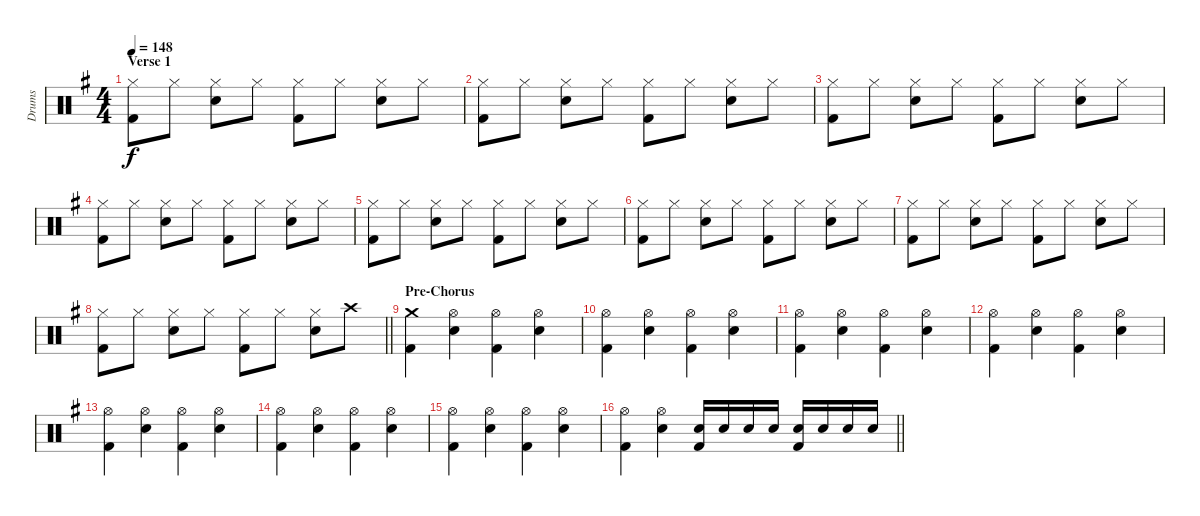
\track ("Drums" "Drums") {instrument percussion}
\staff {score}
\articulation defaults
\ts (4 4)
\section ("" "Verse 1")
\tempo 148
\clef neutral
\ks g
("Kick (hit) 2" "Hi-Hat (closed)").8{dy f} "Hi-Hat (closed)".8 ("Snare (hit) 2" "Hi-Hat (closed)").8 "Hi-Hat (closed)".8 ("Kick (hit) 2" "Hi-Hat (closed)").8 "Hi-Hat (closed)".8 ("Snare (hit) 2" "Hi-Hat (closed)").8 "Hi-Hat (closed)".8 |
("Kick (hit) 2" "Hi-Hat (closed)").8 "Hi-Hat (closed)".8 ("Snare (hit) 2" "Hi-Hat (closed)").8 "Hi-Hat (closed)".8 ("Kick (hit) 2" "Hi-Hat (closed)").8 "Hi-Hat (closed)".8 ("Snare (hit) 2" "Hi-Hat (closed)").8 "Hi-Hat (closed)".8 |
("Kick (hit) 2" "Hi-Hat (closed)").8 "Hi-Hat (closed)".8 ("Snare (hit) 2" "Hi-Hat (closed)").8 "Hi-Hat (closed)".8 ("Kick (hit) 2" "Hi-Hat (closed)").8 "Hi-Hat (closed)".8 ("Snare (hit) 2" "Hi-Hat (closed)").8 "Hi-Hat (closed)".8 |
("Kick (hit) 2" "Hi-Hat (closed)").8 "Hi-Hat (closed)".8 ("Snare (hit) 2" "Hi-Hat (closed)").8 "Hi-Hat (closed)".8 ("Kick (hit) 2" "Hi-Hat (closed)").8 "Hi-Hat (closed)".8 ("Snare (hit) 2" "Hi-Hat (closed)").8 "Hi-Hat (closed)".8 |
("Kick (hit) 2" "Hi-Hat (closed)").8 "Hi-Hat (closed)".8 ("Snare (hit) 2" "Hi-Hat (closed)").8 "Hi-Hat (closed)".8 ("Kick (hit) 2" "Hi-Hat (closed)").8 "Hi-Hat (closed)".8 ("Snare (hit) 2" "Hi-Hat (closed)").8 "Hi-Hat (closed)".8 |
("Kick (hit) 2" "Hi-Hat (closed)").8 "Hi-Hat (closed)".8 ("Snare (hit) 2" "Hi-Hat (closed)").8 "Hi-Hat (closed)".8 ("Kick (hit) 2" "Hi-Hat (closed)").8 "Hi-Hat (closed)".8 ("Snare (hit) 2" "Hi-Hat (closed)").8 "Hi-Hat (closed)".8 |
("Kick (hit) 2" "Hi-Hat (closed)").8 "Hi-Hat (closed)".8 ("Snare (hit) 2" "Hi-Hat (closed)").8 "Hi-Hat (closed)".8 ("Kick (hit) 2" "Hi-Hat (closed)").8 "Hi-Hat (closed)".8 ("Snare (hit) 2" "Hi-Hat (closed)").8 "Hi-Hat (closed)".8 |
\barLineRight lightlight
("Kick (hit) 2" "Hi-Hat (closed)").8 "Hi-Hat (closed)".8 ("Snare (hit) 2" "Hi-Hat (closed)").8 "Hi-Hat (closed)".8 ("Kick (hit) 2" "Hi-Hat (closed)").8 "Hi-Hat (closed)".8 ("Snare (hit) 2" "Hi-Hat (closed)").8 "Crash high (hit)".8 |
\section ("" "Pre-Chorus")
("Kick (hit) 2" "Crash medium (hit)").4 ("Snare (hit) 2" "Hi-Hat (open)").4 ("Kick (hit) 2" "Hi-Hat (open)").4 ("Snare (hit) 2" "Hi-Hat (open)").4 |
("Kick (hit) 2" "Hi-Hat (open)").4 ("Snare (hit) 2" "Hi-Hat (open)").4 ("Kick (hit) 2" "Hi-Hat (open)").4 ("Snare (hit) 2" "Hi-Hat (open)").4 |
("Kick (hit) 2" "Hi-Hat (open)").4 ("Snare (hit) 2" "Hi-Hat (open)").4 ("Kick (hit) 2" "Hi-Hat (open)").4 ("Snare (hit) 2" "Hi-Hat (open)").4 |
("Kick (hit) 2" "Hi-Hat (open)").4 ("Snare (hit) 2" "Hi-Hat (open)").4 ("Kick (hit) 2" "Hi-Hat (open)").4 ("Snare (hit) 2" "Hi-Hat (open)").4 |
("Kick (hit) 2" "Hi-Hat (open)").4 ("Snare (hit) 2" "Hi-Hat (open)").4 ("Kick (hit) 2" "Hi-Hat (open)").4 ("Snare (hit) 2" "Hi-Hat (open)").4 |
("Kick (hit) 2" "Hi-Hat (open)").4 ("Snare (hit) 2" "Hi-Hat (open)").4 ("Kick (hit) 2" "Hi-Hat (open)").4 ("Snare (hit) 2" "Hi-Hat (open)").4 |
("Kick (hit) 2" "Hi-Hat (open)").4 ("Snare (hit) 2" "Hi-Hat (open)").4 ("Kick (hit) 2" "Hi-Hat (open)").4 ("Snare (hit) 2" "Hi-Hat (open)").4 |
\barLineRight lightlight
("Kick (hit) 2" "Hi-Hat (open)").4 ("Snare (hit) 2" "Hi-Hat (open)").4 ("Kick (hit) 2" "Snare (hit) 2").16 "Snare (hit) 2".16 "Snare (hit) 2".16 "Snare (hit) 2".16 ("Kick (hit) 2" "Snare (hit) 2").16 "Snare (hit) 2".16 "Snare (hit) 2".16 "Snare (hit) 2".16
